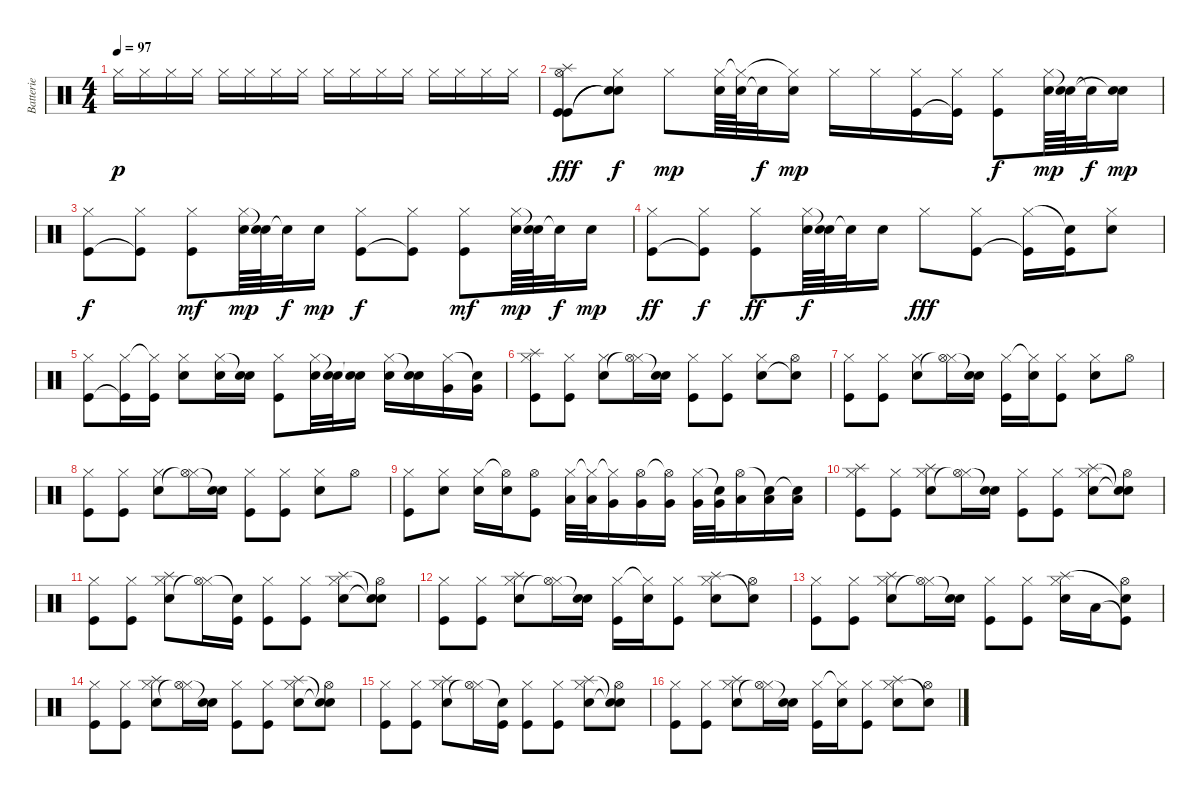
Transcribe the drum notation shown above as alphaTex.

\track ("Batterie" "Batterie") {instrument percussion}
\staff {score}
\articulation defaults
\ts (4 4)
\tempo 97
\clef neutral
\ks c "Hi-Hat (closed)".16{dy p} "Hi-Hat (closed)".16 "Hi-Hat (closed)".16 "Hi-Hat (closed)".16 "Hi-Hat (closed)".16 "Hi-Hat (closed)".16 "Hi-Hat (closed)".16 "Hi-Hat (closed)".16 "Hi-Hat (closed)".16 "Hi-Hat (closed)".16 "Hi-Hat (closed)".16 "Hi-Hat (closed)".16 "Hi-Hat (closed)".16 "Hi-Hat (closed)".16 "Hi-Hat (closed)".16 "Hi-Hat (closed)".16
|
("Kick (hit)" "Hi-Hat (open)" "Kick (hit)" "Splash (hit)").8{dy fff} ("Snare (hit)"{t} "Hi-Hat (closed)" "Snare (hit)"{t}).8{dy f} "Hi-Hat (closed)".8{dy mp} ("Snare (hit) 2" "Hi-Hat (closed)").64 ("Snare (hit) 2" "Hi-Hat (closed)"{t}).64 "Snare (hit)"{t}.32{dy f} ("Snare (hit) 2" "Hi-Hat (closed)"{t}).16{dy mp} "Hi-Hat (closed)".16 "Hi-Hat (closed)".16 ("Kick (hit)" "Hi-Hat (closed)").16 ("Kick (hit)"{t} "Hi-Hat (closed)").16 ("Kick (hit)" "Hi-Hat (closed)").8{dy f} ("Snare (hit) 2" "Hi-Hat (closed)").64{dy mp} ("Snare (hit) 2" "Snare (hit)"{t}).64 "Snare (hit)"{t}.32{dy f} ("Snare (hit) 2" "Snare (hit)"{t}).16{dy mp} |
("Kick (hit)" "Hi-Hat (closed)").8{dy f} ("Kick (hit)"{t} "Hi-Hat (closed)").8 ("Kick (hit)" "Hi-Hat (closed)").8{dy mf} ("Snare (hit) 2" "Hi-Hat (closed)").64{dy mp} ("Snare (hit) 2" "Snare (hit)"{t}).64 "Snare (hit)"{t}.32{dy f} "Snare (hit) 2".16{dy mp} ("Kick (hit)" "Hi-Hat (closed)").8{dy f} ("Kick (hit)"{t} "Hi-Hat (closed)").8 ("Kick (hit)" "Hi-Hat (closed)").8{dy mf} ("Snare (hit) 2" "Hi-Hat (closed)").64{dy mp} ("Snare (hit) 2" "Snare (hit)"{t}).64 "Snare (hit)"{t}.32{dy f} "Snare (hit) 2".16{dy mp} |
("Kick (hit)" "Hi-Hat (closed)").8{dy ff} ("Kick (hit)"{t} "Hi-Hat (closed)").8{dy f} ("Kick (hit)" "Hi-Hat (closed)").8{dy ff} ("Snare (hit) 2" "Hi-Hat (closed)").64{dy f} ("Snare (hit) 2" "Snare (hit)"{t}).64 "Snare (hit)"{t}.32 "Snare (hit) 2".16 "Hi-Hat (closed)".8{dy fff} ("Kick (hit)" "Hi-Hat (closed)").8 ("Kick (hit)"{t} "Hi-Hat (closed)").16 ("Kick (hit)" "Snare (hit)"{t}).16 ("Snare (hit) 2" "Hi-Hat (closed)").8 |
("Kick (hit)" "Hi-Hat (closed)").8 ("Kick (hit)"{t} "Hi-Hat (closed)").16 ("Kick (hit)" "Hi-Hat (closed)"{t}).16 ("Snare (hit) 2" "Hi-Hat (closed)").8 ("Snare (hit) 2" "Hi-Hat (closed)").16 ("Snare (hit) 2" "Snare (hit)"{t}).16 ("Kick (hit)" "Hi-Hat (closed)").8 ("Snare (hit) 2" "Hi-Hat (closed)").32 ("Snare (hit) 2" "Snare (hit)"{t}).32 ("Snare (hit) 2" "Snare (hit)"{t}).16 ("Snare (hit) 2" "Hi-Hat (closed)").16 ("Snare (hit) 2" "Snare (hit)"{t}).16 ("Very Low Tom (hit)" "Hi-Hat (closed)").16 ("Very Low Tom (hit)" "Snare (hit)"{t}).16 |
("Kick (hit)" "Hi-Hat (closed)" "Splash (hit)").8 ("Kick (hit)" "Hi-Hat (closed)").8 ("Snare (hit) 2" "Hi-Hat (closed)").8 ("Hi-Hat (closed)"{t} "Hi-Hat (open)").16 ("Snare (hit) 2" "Snare (hit)"{t}).16 ("Kick (hit)" "Hi-Hat (closed)").8 ("Kick (hit)" "Hi-Hat (closed)").8 ("Snare (hit) 2" "Hi-Hat (closed)").8 ("Snare (hit)"{t} "Hi-Hat (open)").8 |
("Kick (hit)" "Hi-Hat (closed)").8 ("Kick (hit)" "Hi-Hat (closed)").8 ("Snare (hit) 2" "Hi-Hat (closed)").8 ("Hi-Hat (closed)"{t} "Hi-Hat (open)").16 ("Snare (hit) 2" "Snare (hit)"{t}).16 ("Kick (hit)" "Hi-Hat (closed)").16 ("Snare (hit) 2" "Hi-Hat (closed)"{t}).16 ("Kick (hit)" "Hi-Hat (closed)").8 ("Snare (hit) 2" "Hi-Hat (closed)").8 "Hi-Hat (open)".8 |
("Kick (hit)" "Hi-Hat (closed)").8 ("Kick (hit)" "Hi-Hat (closed)").8 ("Snare (hit) 2" "Hi-Hat (closed)").8 ("Hi-Hat (closed)"{t} "Hi-Hat (open)").16 ("Snare (hit) 2" "Snare (hit)"{t}).16 ("Kick (hit)" "Hi-Hat (closed)").8 ("Kick (hit)" "Hi-Hat (closed)").8 ("Snare (hit) 2" "Hi-Hat (closed)").8 "Hi-Hat (open)".8 |
("Kick (hit)" "Hi-Hat (closed)").8 ("Snare (hit) 2" "Hi-Hat (closed)").8 ("Snare (hit) 2" "Hi-Hat (closed)").16 ("Snare (hit) 2" "Hi-Hat (open)"{t}).16 ("Kick (hit)" "Hi-Hat (open)").8 ("Low Tom (hit)" "Hi-Hat (closed)").32 ("Low Tom (hit)" "Hi-Hat (closed)"{t}).32 ("Very Low Tom (hit)" "Hi-Hat (closed)"{t}).16 ("Very Low Tom (hit)" "Hi-Hat (open)").16 ("Very Low Tom (hit)" "Hi-Hat (open)"{t}).16 ("Very Low Tom (hit)" "Hi-Hat (closed)").32 ("Very Low Tom (hit)" "Snare (hit)"{t}).32 ("Low Floor Tom (hit)" "Hi-Hat (open)").16 ("Low Floor Tom (hit)" "Snare (hit)"{t}).16 ("Low Floor Tom (hit)" "Snare (hit)"{t}).16 |
("Kick (hit)" "Hi-Hat (closed)" "Splash (hit)").8 ("Kick (hit)" "Hi-Hat (closed)").8 ("Snare (hit) 2" "Hi-Hat (closed)" "Splash (hit)").8 ("Hi-Hat (closed)"{t} "Hi-Hat (open)").16 ("Snare (hit) 2" "Snare (hit)"{t}).16 ("Kick (hit)" "Hi-Hat (closed)").8 ("Kick (hit)" "Hi-Hat (closed)").8 ("Snare (hit) 2" "Hi-Hat (closed)" "Splash (hit)").8 ("Snare (hit)"{t} "Hi-Hat (open)" "Snare (hit)"{t}).8 |
("Kick (hit)" "Hi-Hat (closed)").8 ("Kick (hit)" "Hi-Hat (closed)").8 ("Snare (hit) 2" "Hi-Hat (closed)" "Splash (hit)").8 ("Hi-Hat (closed)"{t} "Hi-Hat (open)").16 ("Kick (hit)" "Snare (hit)"{t}).16 ("Kick (hit)" "Hi-Hat (closed)").8 ("Kick (hit)" "Hi-Hat (closed)").8 ("Snare (hit) 2" "Hi-Hat (closed)" "Splash (hit)").8 ("Snare (hit)"{t} "Hi-Hat (open)" "Snare (hit)"{t}).8 |
("Kick (hit)" "Hi-Hat (closed)").8 ("Kick (hit)" "Hi-Hat (closed)").8 ("Snare (hit) 2" "Hi-Hat (closed)" "Splash (hit)").8 ("Hi-Hat (closed)"{t} "Hi-Hat (open)").16 ("Snare (hit) 2" "Snare (hit)"{t}).16 ("Kick (hit)" "Hi-Hat (closed)").16 ("Snare (hit) 2" "Hi-Hat (closed)"{t}).16 ("Kick (hit)" "Hi-Hat (closed)").8 ("Snare (hit) 2" "Hi-Hat (closed)" "Splash (hit)").8 ("Hi-Hat (open)" "Snare (hit)"{t}).8 |
("Kick (hit)" "Hi-Hat (closed)").8 ("Kick (hit)" "Hi-Hat (closed)").8 ("Snare (hit) 2" "Hi-Hat (closed)" "Splash (hit)").8 ("Hi-Hat (closed)"{t} "Hi-Hat (open)").16 ("Snare (hit) 2" "Snare (hit)"{t}).16 ("Kick (hit)" "Hi-Hat (closed)").8 ("Kick (hit)" "Hi-Hat (closed)").8 ("Snare (hit) 2" "Hi-Hat (closed)" "Splash (hit)").16 "Low Tom (hit)".16 ("Kick (hit)"{t} "Hi-Hat (open)" "Snare (hit)"{t}).8 |
("Kick (hit)" "Hi-Hat (closed)").8 ("Kick (hit)" "Hi-Hat (closed)").8 ("Snare (hit) 2" "Hi-Hat (closed)" "Splash (hit)").8 ("Hi-Hat (closed)"{t} "Hi-Hat (open)").16 ("Snare (hit) 2" "Snare (hit)"{t}).16 ("Kick (hit)" "Hi-Hat (closed)").8 ("Kick (hit)" "Hi-Hat (closed)").8 ("Snare (hit) 2" "Hi-Hat (closed)" "Splash (hit)").8 ("Snare (hit)"{t} "Hi-Hat (open)" "Snare (hit)"{t}).8 |
("Kick (hit)" "Hi-Hat (closed)").8 ("Kick (hit)" "Hi-Hat (closed)").8 ("Snare (hit) 2" "Hi-Hat (closed)" "Splash (hit)").8 ("Hi-Hat (closed)"{t} "Hi-Hat (open)").16 ("Kick (hit)" "Snare (hit)"{t}).16 ("Kick (hit)" "Hi-Hat (closed)").8 ("Kick (hit)" "Hi-Hat (closed)").8 ("Snare (hit) 2" "Hi-Hat (closed)" "Splash (hit)").8 ("Snare (hit)"{t} "Hi-Hat (open)" "Snare (hit)"{t}).8 |
("Kick (hit)" "Hi-Hat (closed)").8 ("Kick (hit)" "Hi-Hat (closed)").8 ("Snare (hit) 2" "Hi-Hat (closed)" "Splash (hit)").8 ("Hi-Hat (closed)"{t} "Hi-Hat (open)").16 ("Snare (hit) 2" "Snare (hit)"{t}).16 ("Kick (hit)" "Hi-Hat (closed)").16 ("Snare (hit) 2" "Hi-Hat (closed)"{t}).16 ("Kick (hit)" "Hi-Hat (closed)").8 ("Snare (hit) 2" "Hi-Hat (closed)" "Splash (hit)").8 ("Hi-Hat (open)" "Snare (hit)"{t}).8
